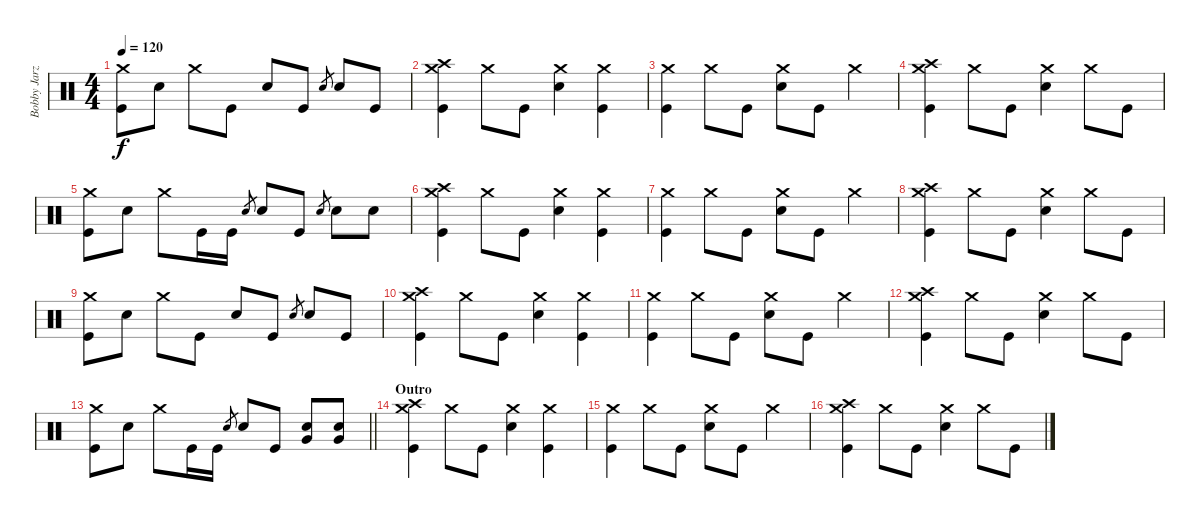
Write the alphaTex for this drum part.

\track ("Bobby Jarzombek" "Bobby Jarz") {instrument percussion}
\staff {score}
\articulation defaults
\ts (4 4)
\tempo 120
\clef neutral
\ks c
("Crash medium (hit)" "Kick (hit)").8{dy f} "Electric Snare (hit)".8 "Crash medium (hit)".8 "Kick (hit)".8 "Electric Snare (hit)".8 "Kick (hit)".8 "Electric Snare (hit)".8{gr} "Electric Snare (hit)".8 "Kick (hit)".8 |
("Crash high (hit)" "Crash medium (hit)" "Kick (hit)").4 "Crash medium (hit)".8 "Kick (hit)".8 ("Crash medium (hit)" "Electric Snare (hit)").4 ("Crash medium (hit)" "Kick (hit)").4 |
("Crash medium (hit)" "Kick (hit)").4 "Crash medium (hit)".8 "Kick (hit)".8 ("Crash medium (hit)" "Electric Snare (hit)").8 "Kick (hit)".8 "Crash medium (hit)".4 |
("Crash high (hit)" "Crash medium (hit)" "Kick (hit)").4 "Crash medium (hit)".8 "Kick (hit)".8 ("Crash medium (hit)" "Electric Snare (hit)").4 "Crash medium (hit)".8 "Kick (hit)".8 |
("Crash medium (hit)" "Kick (hit)").8 "Electric Snare (hit)".8 "Crash medium (hit)".8 "Kick (hit)".16 "Kick (hit)".16 "Electric Snare (hit)".8{gr} "Electric Snare (hit)".8 "Kick (hit)".8 "Electric Snare (hit)".8{gr} "Electric Snare (hit)".8 "Electric Snare (hit)".8 |
("Crash high (hit)" "Crash medium (hit)" "Kick (hit)").4 "Crash medium (hit)".8 "Kick (hit)".8 ("Crash medium (hit)" "Electric Snare (hit)").4 ("Crash medium (hit)" "Kick (hit)").4 |
("Crash medium (hit)" "Kick (hit)").4 "Crash medium (hit)".8 "Kick (hit)".8 ("Crash medium (hit)" "Electric Snare (hit)").8 "Kick (hit)".8 "Crash medium (hit)".4 |
("Crash high (hit)" "Crash medium (hit)" "Kick (hit)").4 "Crash medium (hit)".8 "Kick (hit)".8 ("Crash medium (hit)" "Electric Snare (hit)").4 "Crash medium (hit)".8 "Kick (hit)".8 |
("Crash medium (hit)" "Kick (hit)").8 "Electric Snare (hit)".8 "Crash medium (hit)".8 "Kick (hit)".8 "Electric Snare (hit)".8 "Kick (hit)".8 "Electric Snare (hit)".8{gr} "Electric Snare (hit)".8 "Kick (hit)".8 |
("Crash high (hit)" "Crash medium (hit)" "Kick (hit)").4 "Crash medium (hit)".8 "Kick (hit)".8 ("Crash medium (hit)" "Electric Snare (hit)").4 ("Crash medium (hit)" "Kick (hit)").4 |
("Crash medium (hit)" "Kick (hit)").4 "Crash medium (hit)".8 "Kick (hit)".8 ("Crash medium (hit)" "Electric Snare (hit)").8 "Kick (hit)".8 "Crash medium (hit)".4 |
("Crash high (hit)" "Crash medium (hit)" "Kick (hit)").4 "Crash medium (hit)".8 "Kick (hit)".8 ("Crash medium (hit)" "Electric Snare (hit)").4 "Crash medium (hit)".8 "Kick (hit)".8 |
\barLineRight lightlight
("Crash medium (hit)" "Kick (hit)").8 "Electric Snare (hit)".8 "Crash medium (hit)".8 "Kick (hit)".16 "Kick (hit)".16 "Electric Snare (hit)".8{gr} "Electric Snare (hit)".8 "Kick (hit)".8 ("Very Low Tom (hit)" "Electric Snare (hit)").8 ("Very Low Tom (hit)" "Electric Snare (hit)").8 |
\section ("" "Outro")
("Crash high (hit)" "Crash medium (hit)" "Kick (hit)").4 "Crash medium (hit)".8 "Kick (hit)".8 ("Crash medium (hit)" "Electric Snare (hit)").4 ("Crash medium (hit)" "Kick (hit)").4 |
("Crash medium (hit)" "Kick (hit)").4 "Crash medium (hit)".8 "Kick (hit)".8 ("Crash medium (hit)" "Electric Snare (hit)").8 "Kick (hit)".8 "Crash medium (hit)".4 |
("Crash high (hit)" "Crash medium (hit)" "Kick (hit)").4 "Crash medium (hit)".8 "Kick (hit)".8 ("Crash medium (hit)" "Electric Snare (hit)").4 "Crash medium (hit)".8 "Kick (hit)".8
